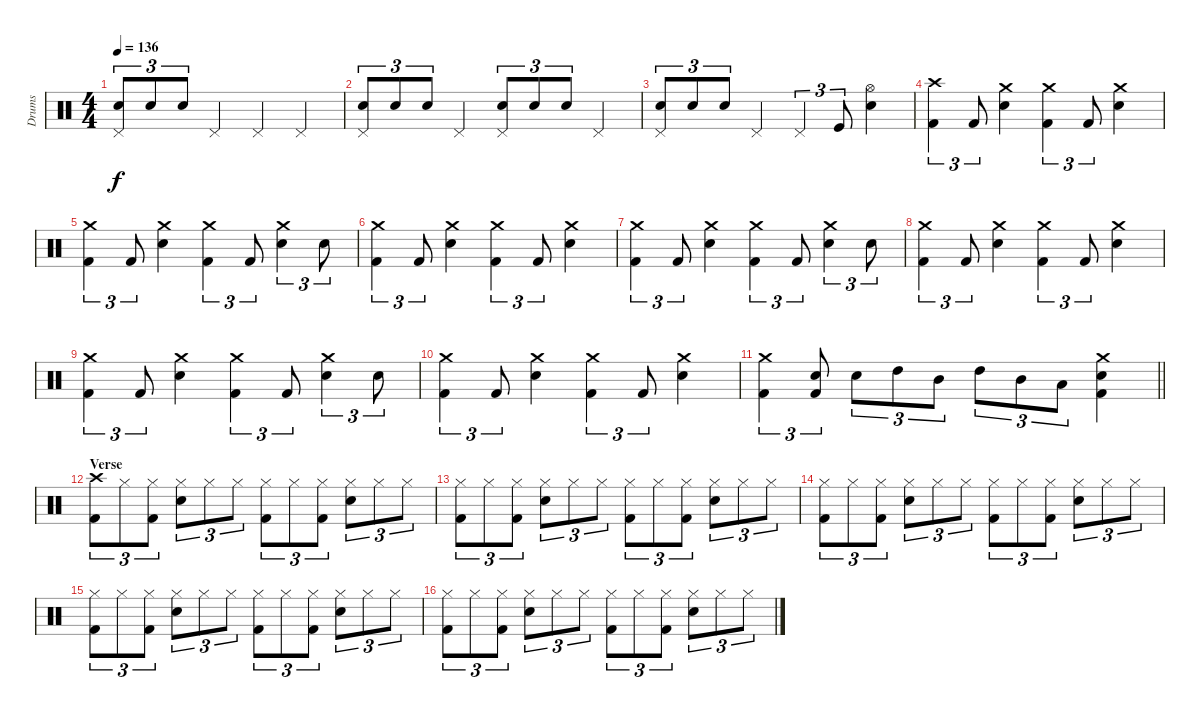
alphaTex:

\track ("Drums" "Drums") {instrument percussion}
\staff {score}
\articulation defaults
\ts (4 4)
\tempo 136
\clef neutral
\ks c
("Snare (hit) 2" "Pedal Hi-Hat (hit)").8{tu (3 2) dy f} "Snare (hit) 2".8{tu (3 2)} "Snare (hit) 2".8{tu (3 2)} "Pedal Hi-Hat (hit)".4 "Pedal Hi-Hat (hit)".4 "Pedal Hi-Hat (hit)".4 |
("Snare (hit) 2" "Pedal Hi-Hat (hit)").8{tu (3 2)} "Snare (hit) 2".8{tu (3 2)} "Snare (hit) 2".8{tu (3 2)} "Pedal Hi-Hat (hit)".4 ("Snare (hit) 2" "Pedal Hi-Hat (hit)").8{tu (3 2)} "Snare (hit) 2".8{tu (3 2)} "Snare (hit) 2".8{tu (3 2)} "Pedal Hi-Hat (hit)".4 |
("Snare (hit) 2" "Pedal Hi-Hat (hit)").8{tu (3 2)} "Snare (hit) 2".8{tu (3 2)} "Snare (hit) 2".8{tu (3 2)} "Pedal Hi-Hat (hit)".4 "Pedal Hi-Hat (hit)".4{tu (3 2)} "Kick (hit)".8{tu (3 2)} ("Hi-Hat (open)" "Snare (hit) 2").4 |
("Crash high (hit)" "Kick (hit) 2").4{tu (3 2)} "Kick (hit) 2".8{tu (3 2)} ("Crash medium (hit)" "Snare (hit) 2").4 ("Crash medium (hit)" "Kick (hit) 2").4{tu (3 2)} "Kick (hit) 2".8{tu (3 2)} ("Crash medium (hit)" "Snare (hit) 2").4 |
("Crash medium (hit)" "Kick (hit) 2").4{tu (3 2)} "Kick (hit) 2".8{tu (3 2)} ("Crash medium (hit)" "Snare (hit) 2").4 ("Crash medium (hit)" "Kick (hit) 2").4{tu (3 2)} "Kick (hit) 2".8{tu (3 2)} ("Crash medium (hit)" "Snare (hit) 2").4{tu (3 2)} "Snare (hit) 2".8{tu (3 2)} |
("Crash medium (hit)" "Kick (hit) 2").4{tu (3 2)} "Kick (hit) 2".8{tu (3 2)} ("Crash medium (hit)" "Snare (hit) 2").4 ("Crash medium (hit)" "Kick (hit) 2").4{tu (3 2)} "Kick (hit) 2".8{tu (3 2)} ("Crash medium (hit)" "Snare (hit) 2").4 |
("Crash medium (hit)" "Kick (hit) 2").4{tu (3 2)} "Kick (hit) 2".8{tu (3 2)} ("Crash medium (hit)" "Snare (hit) 2").4 ("Crash medium (hit)" "Kick (hit) 2").4{tu (3 2)} "Kick (hit) 2".8{tu (3 2)} ("Crash medium (hit)" "Snare (hit) 2").4{tu (3 2)} "Snare (hit) 2".8{tu (3 2)} |
("Crash medium (hit)" "Kick (hit) 2").4{tu (3 2)} "Kick (hit) 2".8{tu (3 2)} ("Crash medium (hit)" "Snare (hit) 2").4 ("Crash medium (hit)" "Kick (hit) 2").4{tu (3 2)} "Kick (hit) 2".8{tu (3 2)} ("Crash medium (hit)" "Snare (hit) 2").4 |
("Crash medium (hit)" "Kick (hit) 2").4{tu (3 2)} "Kick (hit) 2".8{tu (3 2)} ("Crash medium (hit)" "Snare (hit) 2").4 ("Crash medium (hit)" "Kick (hit) 2").4{tu (3 2)} "Kick (hit) 2".8{tu (3 2)} ("Crash medium (hit)" "Snare (hit) 2").4{tu (3 2)} "Snare (hit) 2".8{tu (3 2)} |
("Crash medium (hit)" "Kick (hit) 2").4{tu (3 2)} "Kick (hit) 2".8{tu (3 2)} ("Crash medium (hit)" "Snare (hit) 2").4 ("Crash medium (hit)" "Kick (hit) 2").4{tu (3 2)} "Kick (hit) 2".8{tu (3 2)} ("Crash medium (hit)" "Snare (hit) 2").4 |
\barLineRight lightlight
("Crash medium (hit)" "Kick (hit) 2").4{tu (3 2)} ("Snare (hit) 2" "Kick (hit) 2").8{tu (3 2)} "Snare (hit) 2".8{tu (3 2)} "High Tom (hit)".8{tu (3 2)} "Mid Tom (hit)".8{tu (3 2)} "High Tom (hit)".8{tu (3 2)} "Mid Tom (hit)".8{tu (3 2)} "Low Tom (hit)".8{tu (3 2)} ("Crash medium (hit)" "Snare (hit) 2" "Kick (hit) 2").4 |
\section ("" "Verse")
("Crash high (hit)" "Kick (hit) 2").8{tu (3 2)} "Hi-Hat (closed)".8{tu (3 2)} ("Hi-Hat (closed)" "Kick (hit) 2").8{tu (3 2)} ("Hi-Hat (closed)" "Snare (hit) 2").8{tu (3 2)} "Hi-Hat (closed)".8{tu (3 2)} "Hi-Hat (closed)".8{tu (3 2)} ("Hi-Hat (closed)" "Kick (hit) 2").8{tu (3 2)} "Hi-Hat (closed)".8{tu (3 2)} ("Hi-Hat (closed)" "Kick (hit) 2").8{tu (3 2)} ("Hi-Hat (closed)" "Snare (hit) 2").8{tu (3 2)} "Hi-Hat (closed)".8{tu (3 2)} "Hi-Hat (closed)".8{tu (3 2)} |
("Hi-Hat (closed)" "Kick (hit) 2").8{tu (3 2)} "Hi-Hat (closed)".8{tu (3 2)} ("Hi-Hat (closed)" "Kick (hit) 2").8{tu (3 2)} ("Hi-Hat (closed)" "Snare (hit) 2").8{tu (3 2)} "Hi-Hat (closed)".8{tu (3 2)} "Hi-Hat (closed)".8{tu (3 2)} ("Hi-Hat (closed)" "Kick (hit) 2").8{tu (3 2)} "Hi-Hat (closed)".8{tu (3 2)} ("Hi-Hat (closed)" "Kick (hit) 2").8{tu (3 2)} ("Hi-Hat (closed)" "Snare (hit) 2").8{tu (3 2)} "Hi-Hat (closed)".8{tu (3 2)} "Hi-Hat (closed)".8{tu (3 2)} |
("Hi-Hat (closed)" "Kick (hit) 2").8{tu (3 2)} "Hi-Hat (closed)".8{tu (3 2)} ("Hi-Hat (closed)" "Kick (hit) 2").8{tu (3 2)} ("Hi-Hat (closed)" "Snare (hit) 2").8{tu (3 2)} "Hi-Hat (closed)".8{tu (3 2)} "Hi-Hat (closed)".8{tu (3 2)} ("Hi-Hat (closed)" "Kick (hit) 2").8{tu (3 2)} "Hi-Hat (closed)".8{tu (3 2)} ("Hi-Hat (closed)" "Kick (hit) 2").8{tu (3 2)} ("Hi-Hat (closed)" "Snare (hit) 2").8{tu (3 2)} "Hi-Hat (closed)".8{tu (3 2)} "Hi-Hat (closed)".8{tu (3 2)} |
("Hi-Hat (closed)" "Kick (hit) 2").8{tu (3 2)} "Hi-Hat (closed)".8{tu (3 2)} ("Hi-Hat (closed)" "Kick (hit) 2").8{tu (3 2)} ("Hi-Hat (closed)" "Snare (hit) 2").8{tu (3 2)} "Hi-Hat (closed)".8{tu (3 2)} "Hi-Hat (closed)".8{tu (3 2)} ("Hi-Hat (closed)" "Kick (hit) 2").8{tu (3 2)} "Hi-Hat (closed)".8{tu (3 2)} ("Hi-Hat (closed)" "Kick (hit) 2").8{tu (3 2)} ("Hi-Hat (closed)" "Snare (hit) 2").8{tu (3 2)} "Hi-Hat (closed)".8{tu (3 2)} "Hi-Hat (closed)".8{tu (3 2)} |
("Hi-Hat (closed)" "Kick (hit) 2").8{tu (3 2)} "Hi-Hat (closed)".8{tu (3 2)} ("Hi-Hat (closed)" "Kick (hit) 2").8{tu (3 2)} ("Hi-Hat (closed)" "Snare (hit) 2").8{tu (3 2)} "Hi-Hat (closed)".8{tu (3 2)} "Hi-Hat (closed)".8{tu (3 2)} ("Hi-Hat (closed)" "Kick (hit) 2").8{tu (3 2)} "Hi-Hat (closed)".8{tu (3 2)} ("Hi-Hat (closed)" "Kick (hit) 2").8{tu (3 2)} ("Hi-Hat (closed)" "Snare (hit) 2").8{tu (3 2)} "Hi-Hat (closed)".8{tu (3 2)} "Hi-Hat (closed)".8{tu (3 2)}
